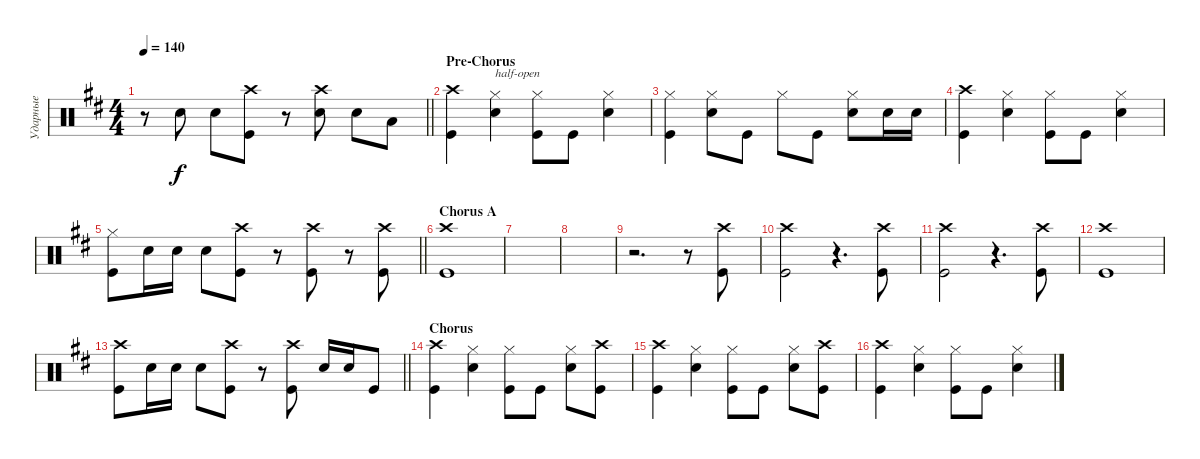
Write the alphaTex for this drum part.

\track ("Ударные" "Ударные") {instrument percussion}
\staff {score}
\articulation defaults
\ts (4 4)
\tempo 140
\clef neutral
\barLineRight lightlight
\ks bminor
r.8{dy f} "Snare (hit) 2".8 "Snare (hit) 2".8 ("Kick (hit)" "Crash high (hit)").8 r.8 ("Snare (hit) 2" "Crash high (hit)").8 "Snare (hit) 2".8 "Low Tom (hit)".8 |
\section ("" "Pre-Chorus")
("Kick (hit)" "Crash high (hit)").4 ("Snare (hit) 2" "Hi-Hat (closed)").4{txt "half-open"} ("Kick (hit)" "Hi-Hat (closed)").8 "Kick (hit)".8 ("Snare (hit) 2" "Hi-Hat (closed)").4 |
("Kick (hit)" "Hi-Hat (closed)").4 ("Snare (hit) 2" "Hi-Hat (closed)").8 "Kick (hit)".8 "Hi-Hat (closed)".8 "Kick (hit)".8 ("Snare (hit) 2" "Hi-Hat (closed)").8 "Snare (hit) 2".16 "Snare (hit) 2".16 |
("Kick (hit)" "Crash high (hit)").4 ("Snare (hit) 2" "Hi-Hat (closed)").4 ("Kick (hit)" "Hi-Hat (closed)").8 "Kick (hit)".8 ("Snare (hit) 2" "Hi-Hat (closed)").4 |
\barLineRight lightlight
("Kick (hit)" "Hi-Hat (closed)").8 "Snare (hit) 2".16 "Snare (hit) 2".16 "Snare (hit) 2".8 ("Kick (hit)" "Crash high (hit)").8 r.8 ("Kick (hit)" "Crash high (hit)").8 r.8 ("Kick (hit)" "Crash high (hit)").8 |
\section ("" "Chorus A")
("Crash high (hit)" "Kick (hit)").1 |
|
|
r.2{d} r.8 ("Kick (hit)" "Crash high (hit)").8 |
("Crash high (hit)" "Kick (hit)").2 r.4{d} ("Kick (hit)" "Crash high (hit)").8 |
("Crash high (hit)" "Kick (hit)").2 r.4{d} ("Kick (hit)" "Crash high (hit)").8 |
("Crash high (hit)" "Kick (hit)").1 |
\barLineRight lightlight
("Kick (hit)" "Crash high (hit)").8 "Snare (hit) 2".16 "Snare (hit) 2".16 "Snare (hit) 2".8 ("Kick (hit)" "Crash high (hit)").8 r.8 ("Kick (hit)" "Crash high (hit)").8 "Snare (hit) 2".16 "Snare (hit) 2".16 "Kick (hit)".8 |
\section ("" "Chorus")
("Kick (hit)" "Crash high (hit)").4 ("Snare (hit) 2" "Hi-Hat (closed)").4 ("Kick (hit)" "Hi-Hat (closed)").8 "Kick (hit)".8 ("Snare (hit) 2" "Hi-Hat (closed)").8 ("Kick (hit)" "Crash high (hit)").8 |
("Kick (hit)" "Crash high (hit)").4 ("Snare (hit) 2" "Hi-Hat (closed)").4 ("Kick (hit)" "Hi-Hat (closed)").8 "Kick (hit)".8 ("Snare (hit) 2" "Hi-Hat (closed)").8 ("Kick (hit)" "Crash high (hit)").8 |
("Kick (hit)" "Crash high (hit)").4 ("Snare (hit) 2" "Hi-Hat (closed)").4 ("Kick (hit)" "Hi-Hat (closed)").8 "Kick (hit)".8 ("Snare (hit) 2" "Hi-Hat (closed)").4
